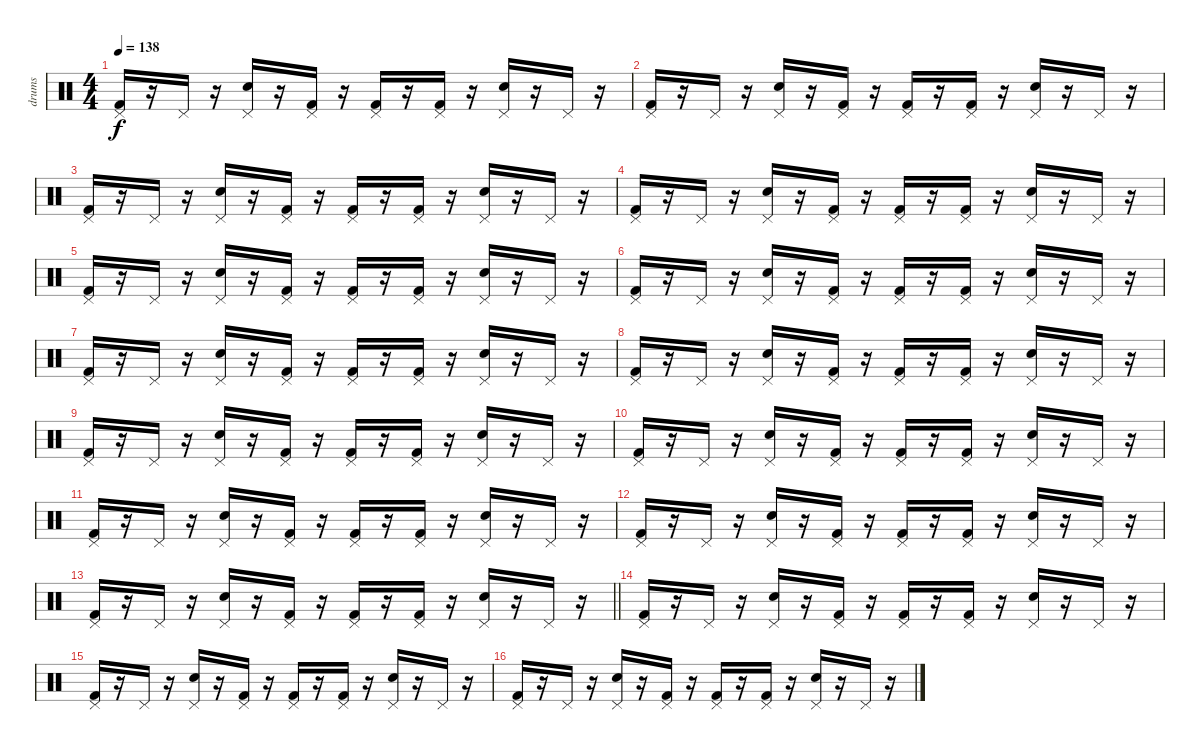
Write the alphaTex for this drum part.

\track ("drums" "drums") {instrument percussion}
\staff {score}
\articulation defaults
\ts (4 4)
\tempo 138
\clef neutral
\ks c
("Kick (hit) 2" "Pedal Hi-Hat (hit)").16{dy f} r.16 "Pedal Hi-Hat (hit)".16 r.16 ("Electric Snare (hit)" "Pedal Hi-Hat (hit)").16 r.16 ("Kick (hit) 2" "Pedal Hi-Hat (hit)").16 r.16 ("Kick (hit) 2" "Pedal Hi-Hat (hit)").16 r.16 ("Kick (hit) 2" "Pedal Hi-Hat (hit)").16 r.16 ("Electric Snare (hit)" "Pedal Hi-Hat (hit)").16 r.16 "Pedal Hi-Hat (hit)".16 r.16 |
("Kick (hit) 2" "Pedal Hi-Hat (hit)").16 r.16 "Pedal Hi-Hat (hit)".16 r.16 ("Electric Snare (hit)" "Pedal Hi-Hat (hit)").16 r.16 ("Kick (hit) 2" "Pedal Hi-Hat (hit)").16 r.16 ("Kick (hit) 2" "Pedal Hi-Hat (hit)").16 r.16 ("Kick (hit) 2" "Pedal Hi-Hat (hit)").16 r.16 ("Electric Snare (hit)" "Pedal Hi-Hat (hit)").16 r.16 "Pedal Hi-Hat (hit)".16 r.16 |
("Kick (hit) 2" "Pedal Hi-Hat (hit)").16 r.16 "Pedal Hi-Hat (hit)".16 r.16 ("Electric Snare (hit)" "Pedal Hi-Hat (hit)").16 r.16 ("Kick (hit) 2" "Pedal Hi-Hat (hit)").16 r.16 ("Kick (hit) 2" "Pedal Hi-Hat (hit)").16 r.16 ("Kick (hit) 2" "Pedal Hi-Hat (hit)").16 r.16 ("Electric Snare (hit)" "Pedal Hi-Hat (hit)").16 r.16 "Pedal Hi-Hat (hit)".16 r.16 |
("Kick (hit) 2" "Pedal Hi-Hat (hit)").16 r.16 "Pedal Hi-Hat (hit)".16 r.16 ("Electric Snare (hit)" "Pedal Hi-Hat (hit)").16 r.16 ("Kick (hit) 2" "Pedal Hi-Hat (hit)").16 r.16 ("Kick (hit) 2" "Pedal Hi-Hat (hit)").16 r.16 ("Kick (hit) 2" "Pedal Hi-Hat (hit)").16 r.16 ("Electric Snare (hit)" "Pedal Hi-Hat (hit)").16 r.16 "Pedal Hi-Hat (hit)".16 r.16 |
("Kick (hit) 2" "Pedal Hi-Hat (hit)").16 r.16 "Pedal Hi-Hat (hit)".16 r.16 ("Electric Snare (hit)" "Pedal Hi-Hat (hit)").16 r.16 ("Kick (hit) 2" "Pedal Hi-Hat (hit)").16 r.16 ("Kick (hit) 2" "Pedal Hi-Hat (hit)").16 r.16 ("Kick (hit) 2" "Pedal Hi-Hat (hit)").16 r.16 ("Electric Snare (hit)" "Pedal Hi-Hat (hit)").16 r.16 "Pedal Hi-Hat (hit)".16 r.16 |
("Kick (hit) 2" "Pedal Hi-Hat (hit)").16 r.16 "Pedal Hi-Hat (hit)".16 r.16 ("Electric Snare (hit)" "Pedal Hi-Hat (hit)").16 r.16 ("Kick (hit) 2" "Pedal Hi-Hat (hit)").16 r.16 ("Kick (hit) 2" "Pedal Hi-Hat (hit)").16 r.16 ("Kick (hit) 2" "Pedal Hi-Hat (hit)").16 r.16 ("Electric Snare (hit)" "Pedal Hi-Hat (hit)").16 r.16 "Pedal Hi-Hat (hit)".16 r.16 |
("Kick (hit) 2" "Pedal Hi-Hat (hit)").16 r.16 "Pedal Hi-Hat (hit)".16 r.16 ("Electric Snare (hit)" "Pedal Hi-Hat (hit)").16 r.16 ("Kick (hit) 2" "Pedal Hi-Hat (hit)").16 r.16 ("Kick (hit) 2" "Pedal Hi-Hat (hit)").16 r.16 ("Kick (hit) 2" "Pedal Hi-Hat (hit)").16 r.16 ("Electric Snare (hit)" "Pedal Hi-Hat (hit)").16 r.16 "Pedal Hi-Hat (hit)".16 r.16 |
("Kick (hit) 2" "Pedal Hi-Hat (hit)").16 r.16 "Pedal Hi-Hat (hit)".16 r.16 ("Electric Snare (hit)" "Pedal Hi-Hat (hit)").16 r.16 ("Kick (hit) 2" "Pedal Hi-Hat (hit)").16 r.16 ("Kick (hit) 2" "Pedal Hi-Hat (hit)").16 r.16 ("Kick (hit) 2" "Pedal Hi-Hat (hit)").16 r.16 ("Electric Snare (hit)" "Pedal Hi-Hat (hit)").16 r.16 "Pedal Hi-Hat (hit)".16 r.16 |
("Kick (hit) 2" "Pedal Hi-Hat (hit)").16 r.16 "Pedal Hi-Hat (hit)".16 r.16 ("Electric Snare (hit)" "Pedal Hi-Hat (hit)").16 r.16 ("Kick (hit) 2" "Pedal Hi-Hat (hit)").16 r.16 ("Kick (hit) 2" "Pedal Hi-Hat (hit)").16 r.16 ("Kick (hit) 2" "Pedal Hi-Hat (hit)").16 r.16 ("Electric Snare (hit)" "Pedal Hi-Hat (hit)").16 r.16 "Pedal Hi-Hat (hit)".16 r.16 |
("Kick (hit) 2" "Pedal Hi-Hat (hit)").16 r.16 "Pedal Hi-Hat (hit)".16 r.16 ("Electric Snare (hit)" "Pedal Hi-Hat (hit)").16 r.16 ("Kick (hit) 2" "Pedal Hi-Hat (hit)").16 r.16 ("Kick (hit) 2" "Pedal Hi-Hat (hit)").16 r.16 ("Kick (hit) 2" "Pedal Hi-Hat (hit)").16 r.16 ("Electric Snare (hit)" "Pedal Hi-Hat (hit)").16 r.16 "Pedal Hi-Hat (hit)".16 r.16 |
("Kick (hit) 2" "Pedal Hi-Hat (hit)").16 r.16 "Pedal Hi-Hat (hit)".16 r.16 ("Electric Snare (hit)" "Pedal Hi-Hat (hit)").16 r.16 ("Kick (hit) 2" "Pedal Hi-Hat (hit)").16 r.16 ("Kick (hit) 2" "Pedal Hi-Hat (hit)").16 r.16 ("Kick (hit) 2" "Pedal Hi-Hat (hit)").16 r.16 ("Electric Snare (hit)" "Pedal Hi-Hat (hit)").16 r.16 "Pedal Hi-Hat (hit)".16 r.16 |
("Kick (hit) 2" "Pedal Hi-Hat (hit)").16 r.16 "Pedal Hi-Hat (hit)".16 r.16 ("Electric Snare (hit)" "Pedal Hi-Hat (hit)").16 r.16 ("Kick (hit) 2" "Pedal Hi-Hat (hit)").16 r.16 ("Kick (hit) 2" "Pedal Hi-Hat (hit)").16 r.16 ("Kick (hit) 2" "Pedal Hi-Hat (hit)").16 r.16 ("Electric Snare (hit)" "Pedal Hi-Hat (hit)").16 r.16 "Pedal Hi-Hat (hit)".16 r.16 |
\barLineRight lightlight
("Kick (hit) 2" "Pedal Hi-Hat (hit)").16 r.16 "Pedal Hi-Hat (hit)".16 r.16 ("Electric Snare (hit)" "Pedal Hi-Hat (hit)").16 r.16 ("Kick (hit) 2" "Pedal Hi-Hat (hit)").16 r.16 ("Kick (hit) 2" "Pedal Hi-Hat (hit)").16 r.16 ("Kick (hit) 2" "Pedal Hi-Hat (hit)").16 r.16 ("Electric Snare (hit)" "Pedal Hi-Hat (hit)").16 r.16 "Pedal Hi-Hat (hit)".16 r.16 |
("Kick (hit) 2" "Pedal Hi-Hat (hit)").16 r.16 "Pedal Hi-Hat (hit)".16 r.16 ("Electric Snare (hit)" "Pedal Hi-Hat (hit)").16 r.16 ("Kick (hit) 2" "Pedal Hi-Hat (hit)").16 r.16 ("Kick (hit) 2" "Pedal Hi-Hat (hit)").16 r.16 ("Kick (hit) 2" "Pedal Hi-Hat (hit)").16 r.16 ("Electric Snare (hit)" "Pedal Hi-Hat (hit)").16 r.16 "Pedal Hi-Hat (hit)".16 r.16 |
("Kick (hit) 2" "Pedal Hi-Hat (hit)").16 r.16 "Pedal Hi-Hat (hit)".16 r.16 ("Electric Snare (hit)" "Pedal Hi-Hat (hit)").16 r.16 ("Kick (hit) 2" "Pedal Hi-Hat (hit)").16 r.16 ("Kick (hit) 2" "Pedal Hi-Hat (hit)").16 r.16 ("Kick (hit) 2" "Pedal Hi-Hat (hit)").16 r.16 ("Electric Snare (hit)" "Pedal Hi-Hat (hit)").16 r.16 "Pedal Hi-Hat (hit)".16 r.16 |
("Kick (hit) 2" "Pedal Hi-Hat (hit)").16 r.16 "Pedal Hi-Hat (hit)".16 r.16 ("Electric Snare (hit)" "Pedal Hi-Hat (hit)").16 r.16 ("Kick (hit) 2" "Pedal Hi-Hat (hit)").16 r.16 ("Kick (hit) 2" "Pedal Hi-Hat (hit)").16 r.16 ("Kick (hit) 2" "Pedal Hi-Hat (hit)").16 r.16 ("Electric Snare (hit)" "Pedal Hi-Hat (hit)").16 r.16 "Pedal Hi-Hat (hit)".16 r.16
